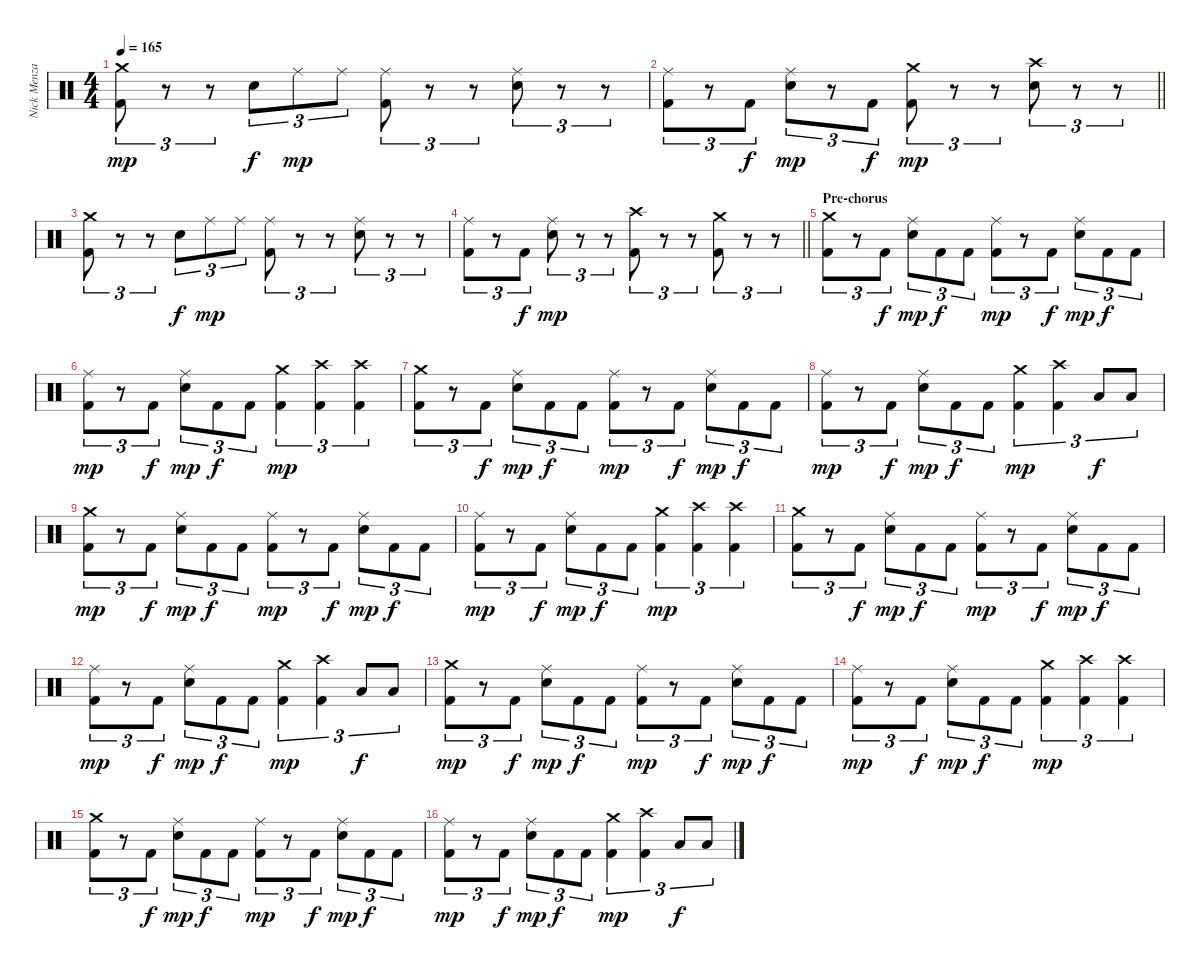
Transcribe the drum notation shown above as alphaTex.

\track ("Nick Menza" "Nick Menza") {solo instrument percussion}
\staff {score}
\articulation defaults
\ts (4 4)
\tempo 165
\clef neutral
\ks c
("Crash medium (hit)" "Kick (hit) 2").8{tu (3 2) dy mp} r.8{tu (3 2)} r.8{tu (3 2)} "Electric Snare (hit)".8{tu (3 2) dy f} "Ride (middle)".8{tu (3 2) dy mp} "Ride (middle)".8{tu (3 2)} ("Ride (middle)" "Kick (hit) 2").8{tu (3 2)} r.8{tu (3 2)} r.8{tu (3 2)} ("Ride (middle)" "Electric Snare (hit)").8{tu (3 2)} r.8{tu (3 2)} r.8{tu (3 2)} |
\barLineRight lightlight
("Ride (middle)" "Kick (hit) 2").8{tu (3 2)} r.8{tu (3 2)} "Kick (hit) 2".8{tu (3 2) dy f} ("Ride (middle)" "Electric Snare (hit)").8{tu (3 2) dy mp} r.8{tu (3 2)} "Kick (hit) 2".8{tu (3 2) dy f} ("Crash medium (hit)" "Kick (hit) 2").8{tu (3 2) dy mp} r.8{tu (3 2)} r.8{tu (3 2)} ("Crash high (hit)" "Electric Snare (hit)").8{tu (3 2)} r.8{tu (3 2)} r.8{tu (3 2)} |
("Crash medium (hit)" "Kick (hit) 2").8{tu (3 2)} r.8{tu (3 2)} r.8{tu (3 2)} "Electric Snare (hit)".8{tu (3 2) dy f} "Ride (middle)".8{tu (3 2) dy mp} "Ride (middle)".8{tu (3 2)} ("Ride (middle)" "Kick (hit) 2").8{tu (3 2)} r.8{tu (3 2)} r.8{tu (3 2)} ("Ride (middle)" "Electric Snare (hit)").8{tu (3 2)} r.8{tu (3 2)} r.8{tu (3 2)} |
\barLineRight lightlight
("Ride (middle)" "Kick (hit) 2").8{tu (3 2)} r.8{tu (3 2)} "Kick (hit) 2".8{tu (3 2) dy f} ("Ride (middle)" "Electric Snare (hit)").8{tu (3 2) dy mp} r.8{tu (3 2)} r.8{tu (3 2)} ("Crash high (hit)" "Kick (hit) 2").8{tu (3 2)} r.8{tu (3 2)} r.8{tu (3 2)} ("Crash medium (hit)" "Kick (hit) 2").8{tu (3 2)} r.8{tu (3 2)} r.8{tu (3 2)} |
\section ("" "Pre-chorus")
("Crash medium (hit)" "Kick (hit) 2").8{tu (3 2)} r.8{tu (3 2)} "Kick (hit) 2".8{tu (3 2) dy f} ("Ride (middle)" "Electric Snare (hit)").8{tu (3 2) dy mp} "Kick (hit) 2".8{tu (3 2) dy f} "Kick (hit) 2".8{tu (3 2)} ("Ride (middle)" "Kick (hit) 2").8{tu (3 2) dy mp} r.8{tu (3 2)} "Kick (hit) 2".8{tu (3 2) dy f} ("Ride (middle)" "Electric Snare (hit)").8{tu (3 2) dy mp} "Kick (hit) 2".8{tu (3 2) dy f} "Kick (hit) 2".8{tu (3 2)} |
("Ride (middle)" "Kick (hit) 2").8{tu (3 2) dy mp} r.8{tu (3 2)} "Kick (hit) 2".8{tu (3 2) dy f} ("Ride (middle)" "Electric Snare (hit)").8{tu (3 2) dy mp} "Kick (hit) 2".8{tu (3 2) dy f} "Kick (hit) 2".8{tu (3 2)} ("Crash medium (hit)" "Kick (hit) 2").4{tu (3 2) dy mp} ("Crash high (hit)" "Kick (hit) 2").4{tu (3 2)} ("Crash high (hit)" "Kick (hit) 2").4{tu (3 2)} |
("Crash medium (hit)" "Kick (hit) 2").8{tu (3 2)} r.8{tu (3 2)} "Kick (hit) 2".8{tu (3 2) dy f} ("Ride (middle)" "Electric Snare (hit)").8{tu (3 2) dy mp} "Kick (hit) 2".8{tu (3 2) dy f} "Kick (hit) 2".8{tu (3 2)} ("Ride (middle)" "Kick (hit) 2").8{tu (3 2) dy mp} r.8{tu (3 2)} "Kick (hit) 2".8{tu (3 2) dy f} ("Ride (middle)" "Electric Snare (hit)").8{tu (3 2) dy mp} "Kick (hit) 2".8{tu (3 2) dy f} "Kick (hit) 2".8{tu (3 2)} |
("Ride (middle)" "Kick (hit) 2").8{tu (3 2) dy mp} r.8{tu (3 2)} "Kick (hit) 2".8{tu (3 2) dy f} ("Ride (middle)" "Electric Snare (hit)").8{tu (3 2) dy mp} "Kick (hit) 2".8{tu (3 2) dy f} "Kick (hit) 2".8{tu (3 2)} ("Crash medium (hit)" "Kick (hit) 2").4{tu (3 2) dy mp} ("Crash high (hit)" "Kick (hit) 2").4{tu (3 2)} "Low Tom (hit)".8{tu (3 2) dy f} "Low Tom (hit)".8{tu (3 2)} |
("Crash medium (hit)" "Kick (hit) 2").8{tu (3 2) dy mp} r.8{tu (3 2)} "Kick (hit) 2".8{tu (3 2) dy f} ("Ride (middle)" "Electric Snare (hit)").8{tu (3 2) dy mp} "Kick (hit) 2".8{tu (3 2) dy f} "Kick (hit) 2".8{tu (3 2)} ("Ride (middle)" "Kick (hit) 2").8{tu (3 2) dy mp} r.8{tu (3 2)} "Kick (hit) 2".8{tu (3 2) dy f} ("Ride (middle)" "Electric Snare (hit)").8{tu (3 2) dy mp} "Kick (hit) 2".8{tu (3 2) dy f} "Kick (hit) 2".8{tu (3 2)} |
("Ride (middle)" "Kick (hit) 2").8{tu (3 2) dy mp} r.8{tu (3 2)} "Kick (hit) 2".8{tu (3 2) dy f} ("Ride (middle)" "Electric Snare (hit)").8{tu (3 2) dy mp} "Kick (hit) 2".8{tu (3 2) dy f} "Kick (hit) 2".8{tu (3 2)} ("Crash medium (hit)" "Kick (hit) 2").4{tu (3 2) dy mp} ("Crash high (hit)" "Kick (hit) 2").4{tu (3 2)} ("Crash high (hit)" "Kick (hit) 2").4{tu (3 2)} |
("Crash medium (hit)" "Kick (hit) 2").8{tu (3 2)} r.8{tu (3 2)} "Kick (hit) 2".8{tu (3 2) dy f} ("Ride (middle)" "Electric Snare (hit)").8{tu (3 2) dy mp} "Kick (hit) 2".8{tu (3 2) dy f} "Kick (hit) 2".8{tu (3 2)} ("Ride (middle)" "Kick (hit) 2").8{tu (3 2) dy mp} r.8{tu (3 2)} "Kick (hit) 2".8{tu (3 2) dy f} ("Ride (middle)" "Electric Snare (hit)").8{tu (3 2) dy mp} "Kick (hit) 2".8{tu (3 2) dy f} "Kick (hit) 2".8{tu (3 2)} |
("Ride (middle)" "Kick (hit) 2").8{tu (3 2) dy mp} r.8{tu (3 2)} "Kick (hit) 2".8{tu (3 2) dy f} ("Ride (middle)" "Electric Snare (hit)").8{tu (3 2) dy mp} "Kick (hit) 2".8{tu (3 2) dy f} "Kick (hit) 2".8{tu (3 2)} ("Crash medium (hit)" "Kick (hit) 2").4{tu (3 2) dy mp} ("Crash high (hit)" "Kick (hit) 2").4{tu (3 2)} "Low Tom (hit)".8{tu (3 2) dy f} "Low Tom (hit)".8{tu (3 2)} |
("Crash medium (hit)" "Kick (hit) 2").8{tu (3 2) dy mp} r.8{tu (3 2)} "Kick (hit) 2".8{tu (3 2) dy f} ("Ride (middle)" "Electric Snare (hit)").8{tu (3 2) dy mp} "Kick (hit) 2".8{tu (3 2) dy f} "Kick (hit) 2".8{tu (3 2)} ("Ride (middle)" "Kick (hit) 2").8{tu (3 2) dy mp} r.8{tu (3 2)} "Kick (hit) 2".8{tu (3 2) dy f} ("Ride (middle)" "Electric Snare (hit)").8{tu (3 2) dy mp} "Kick (hit) 2".8{tu (3 2) dy f} "Kick (hit) 2".8{tu (3 2)} |
("Ride (middle)" "Kick (hit) 2").8{tu (3 2) dy mp} r.8{tu (3 2)} "Kick (hit) 2".8{tu (3 2) dy f} ("Ride (middle)" "Electric Snare (hit)").8{tu (3 2) dy mp} "Kick (hit) 2".8{tu (3 2) dy f} "Kick (hit) 2".8{tu (3 2)} ("Crash medium (hit)" "Kick (hit) 2").4{tu (3 2) dy mp} ("Crash high (hit)" "Kick (hit) 2").4{tu (3 2)} ("Crash high (hit)" "Kick (hit) 2").4{tu (3 2)} |
("Crash medium (hit)" "Kick (hit) 2").8{tu (3 2)} r.8{tu (3 2)} "Kick (hit) 2".8{tu (3 2) dy f} ("Ride (middle)" "Electric Snare (hit)").8{tu (3 2) dy mp} "Kick (hit) 2".8{tu (3 2) dy f} "Kick (hit) 2".8{tu (3 2)} ("Ride (middle)" "Kick (hit) 2").8{tu (3 2) dy mp} r.8{tu (3 2)} "Kick (hit) 2".8{tu (3 2) dy f} ("Ride (middle)" "Electric Snare (hit)").8{tu (3 2) dy mp} "Kick (hit) 2".8{tu (3 2) dy f} "Kick (hit) 2".8{tu (3 2)} |
("Ride (middle)" "Kick (hit) 2").8{tu (3 2) dy mp} r.8{tu (3 2)} "Kick (hit) 2".8{tu (3 2) dy f} ("Ride (middle)" "Electric Snare (hit)").8{tu (3 2) dy mp} "Kick (hit) 2".8{tu (3 2) dy f} "Kick (hit) 2".8{tu (3 2)} ("Crash medium (hit)" "Kick (hit) 2").4{tu (3 2) dy mp} ("Crash high (hit)" "Kick (hit) 2").4{tu (3 2)} "Low Tom (hit)".8{tu (3 2) dy f} "Low Tom (hit)".8{tu (3 2)}
